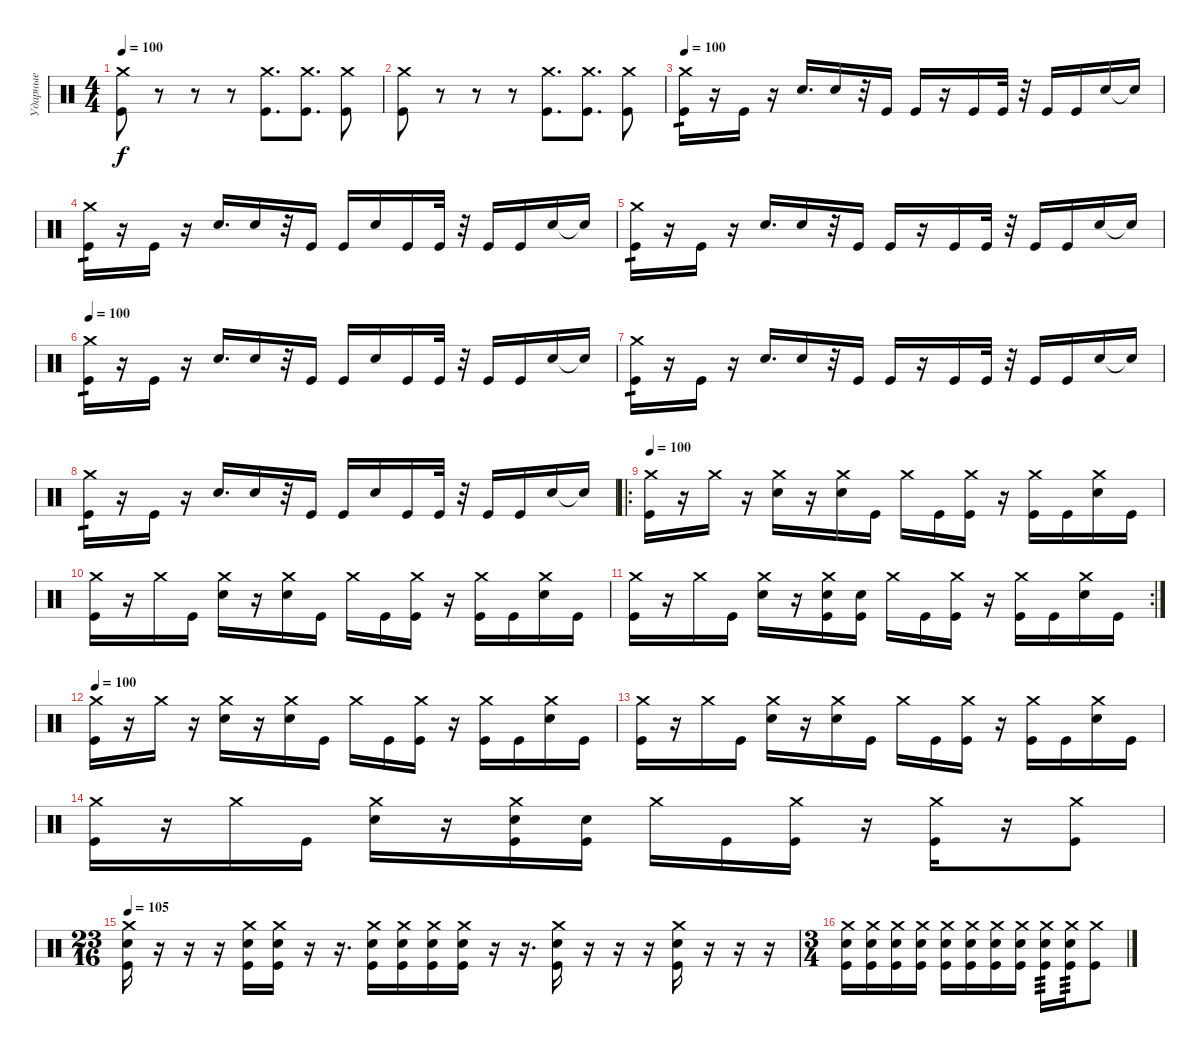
\track ("Ударные" "Ударные") {instrument percussion}
\staff {score}
\articulation defaults
\ts (4 4)
\tempo 100
\clef neutral
\ks c
("Crash medium (hit)" "Kick (hit)").8{dy f} r.8 r.8 r.8 ("Crash medium (hit)" "Kick (hit)").8{d} ("Crash medium (hit)" "Kick (hit)").8{d} ("Crash medium (hit)" "Kick (hit)").8 |
("Crash medium (hit)" "Kick (hit)").8 r.8 r.8 r.8 ("Crash medium (hit)" "Kick (hit)").8{d} ("Crash medium (hit)" "Kick (hit)").8{d} ("Crash medium (hit)" "Kick (hit)").8 |
\tempo 100
("Crash medium (hit)" "Kick (hit)").16{tp 1} r.16 "Kick (hit)".16 r.16 "Electric Snare (hit)".16{d} "Electric Snare (hit)".16 r.32 "Kick (hit)".16 "Kick (hit)".16 r.16 "Kick (hit)".16 "Kick (hit)".32 r.32 "Kick (hit)".16 "Kick (hit)".16 "Electric Snare (hit)".16 "Snare (hit)"{t}.16 |
("Crash medium (hit)" "Kick (hit)").16{tp 1} r.16 "Kick (hit)".16 r.16 "Electric Snare (hit)".16{d} "Electric Snare (hit)".16 r.32 "Kick (hit)".16 "Kick (hit)".16 "Electric Snare (hit)".16 "Kick (hit)".16 "Kick (hit)".32 r.32 "Kick (hit)".16 "Kick (hit)".16 "Electric Snare (hit)".16 "Snare (hit)"{t}.16 |
("Crash medium (hit)" "Kick (hit)").16{tp 1} r.16 "Kick (hit)".16 r.16 "Electric Snare (hit)".16{d} "Electric Snare (hit)".16 r.32 "Kick (hit)".16 "Kick (hit)".16 r.16 "Kick (hit)".16 "Kick (hit)".32 r.32 "Kick (hit)".16 "Kick (hit)".16 "Electric Snare (hit)".16 "Snare (hit)"{t}.16 |
\tempo 100
("Crash medium (hit)" "Kick (hit)").16{tp 1} r.16 "Kick (hit)".16 r.16 "Electric Snare (hit)".16{d} "Electric Snare (hit)".16 r.32 "Kick (hit)".16 "Kick (hit)".16 "Electric Snare (hit)".16 "Kick (hit)".16 "Kick (hit)".32 r.32 "Kick (hit)".16 "Kick (hit)".16 "Electric Snare (hit)".16 "Snare (hit)"{t}.16 |
("Crash medium (hit)" "Kick (hit)").16{tp 1} r.16 "Kick (hit)".16 r.16 "Electric Snare (hit)".16{d} "Electric Snare (hit)".16 r.32 "Kick (hit)".16 "Kick (hit)".16 r.16 "Kick (hit)".16 "Kick (hit)".32 r.32 "Kick (hit)".16 "Kick (hit)".16 "Electric Snare (hit)".16 "Snare (hit)"{t}.16 |
("Crash medium (hit)" "Kick (hit)").16{tp 1} r.16 "Kick (hit)".16 r.16 "Electric Snare (hit)".16{d} "Electric Snare (hit)".16 r.32 "Kick (hit)".16 "Kick (hit)".16 "Electric Snare (hit)".16 "Kick (hit)".16 "Kick (hit)".32 r.32 "Kick (hit)".16 "Kick (hit)".16 "Electric Snare (hit)".16 "Snare (hit)"{t}.16 |
\ro
\tempo 100
("Crash medium (hit)" "Kick (hit)").16 r.16 "Crash medium (hit)".16 r.16 ("Crash medium (hit)" "Electric Snare (hit)").16 r.16 ("Crash medium (hit)" "Electric Snare (hit)").16 "Kick (hit)".16 "Crash medium (hit)".16 "Kick (hit)".16 ("Crash medium (hit)" "Kick (hit)").16 r.16 ("Crash medium (hit)" "Kick (hit)").16 "Kick (hit)".16 ("Crash medium (hit)" "Electric Snare (hit)").16 "Kick (hit)".16 |
("Crash medium (hit)" "Kick (hit)").16 r.16 "Crash medium (hit)".16 "Kick (hit)".16 ("Crash medium (hit)" "Electric Snare (hit)").16 r.16 ("Crash medium (hit)" "Electric Snare (hit)").16 "Kick (hit)".16 "Crash medium (hit)".16 "Kick (hit)".16 ("Crash medium (hit)" "Kick (hit)").16 r.16 ("Crash medium (hit)" "Kick (hit)").16 "Kick (hit)".16 ("Crash medium (hit)" "Electric Snare (hit)").16 "Kick (hit)".16 |
\rc 2
("Crash medium (hit)" "Kick (hit)").16 r.16 "Crash medium (hit)".16 "Kick (hit)".16 ("Crash medium (hit)" "Electric Snare (hit)").16 r.16 ("Crash medium (hit)" "Electric Snare (hit)" "Kick (hit)").16 ("Electric Snare (hit)" "Kick (hit)").16 "Crash medium (hit)".16 "Kick (hit)".16 ("Crash medium (hit)" "Kick (hit)").16 r.16 ("Crash medium (hit)" "Kick (hit)").16 "Kick (hit)".16 ("Crash medium (hit)" "Electric Snare (hit)").16 "Kick (hit)".16 |
\tempo 100
("Crash medium (hit)" "Kick (hit)").16 r.16 "Crash medium (hit)".16 r.16 ("Crash medium (hit)" "Electric Snare (hit)").16 r.16 ("Crash medium (hit)" "Electric Snare (hit)").16 "Kick (hit)".16 "Crash medium (hit)".16 "Kick (hit)".16 ("Crash medium (hit)" "Kick (hit)").16 r.16 ("Crash medium (hit)" "Kick (hit)").16 "Kick (hit)".16 ("Crash medium (hit)" "Electric Snare (hit)").16 "Kick (hit)".16 |
("Crash medium (hit)" "Kick (hit)").16 r.16 "Crash medium (hit)".16 "Kick (hit)".16 ("Crash medium (hit)" "Electric Snare (hit)").16 r.16 ("Crash medium (hit)" "Electric Snare (hit)").16 "Kick (hit)".16 "Crash medium (hit)".16 "Kick (hit)".16 ("Crash medium (hit)" "Kick (hit)").16 r.16 ("Crash medium (hit)" "Kick (hit)").16 "Kick (hit)".16 ("Crash medium (hit)" "Electric Snare (hit)").16 "Kick (hit)".16 |
("Crash medium (hit)" "Kick (hit)").16 r.16 "Crash medium (hit)".16 "Kick (hit)".16 ("Crash medium (hit)" "Electric Snare (hit)").16 r.16 ("Crash medium (hit)" "Electric Snare (hit)" "Kick (hit)").16 ("Electric Snare (hit)" "Kick (hit)").16 "Crash medium (hit)".16 "Kick (hit)".16 ("Crash medium (hit)" "Kick (hit)").16 r.16 ("Crash medium (hit)" "Kick (hit)").16 r.16 ("Crash medium (hit)" "Kick (hit)").8 |
\ts (23 16)
\tempo 105
("Crash medium (hit)" "Electric Snare (hit)" "Kick (hit)").16 r.16 r.16 r.16 ("Crash medium (hit)" "Electric Snare (hit)" "Kick (hit)").16 ("Crash medium (hit)" "Electric Snare (hit)" "Kick (hit)").16 r.16 r.16{d} ("Crash medium (hit)" "Electric Snare (hit)" "Kick (hit)").16 ("Crash medium (hit)" "Electric Snare (hit)" "Kick (hit)").16 ("Crash medium (hit)" "Electric Snare (hit)" "Kick (hit)").16 ("Crash medium (hit)" "Electric Snare (hit)" "Kick (hit)").16 r.16 r.16{d} ("Crash medium (hit)" "Electric Snare (hit)" "Kick (hit)").16 r.16 r.16 r.16 ("Crash medium (hit)" "Electric Snare (hit)" "Kick (hit)").16 r.16 r.16 r.16 |
\ts (3 4)
("Crash medium (hit)" "Electric Snare (hit)" "Kick (hit)").16 ("Crash medium (hit)" "Electric Snare (hit)" "Kick (hit)").16 ("Crash medium (hit)" "Electric Snare (hit)" "Kick (hit)").16 ("Crash medium (hit)" "Electric Snare (hit)" "Kick (hit)").16 ("Crash medium (hit)" "Electric Snare (hit)" "Kick (hit)").16 ("Crash medium (hit)" "Electric Snare (hit)" "Kick (hit)").16 ("Crash medium (hit)" "Electric Snare (hit)" "Kick (hit)").16 ("Crash medium (hit)" "Electric Snare (hit)" "Kick (hit)").16 ("Crash medium (hit)" "Electric Snare (hit)" "Kick (hit)").16{tp 3} ("Crash medium (hit)" "Electric Snare (hit)" "Kick (hit)").16{tp 3} ("Crash medium (hit)" "Kick (hit)").8
